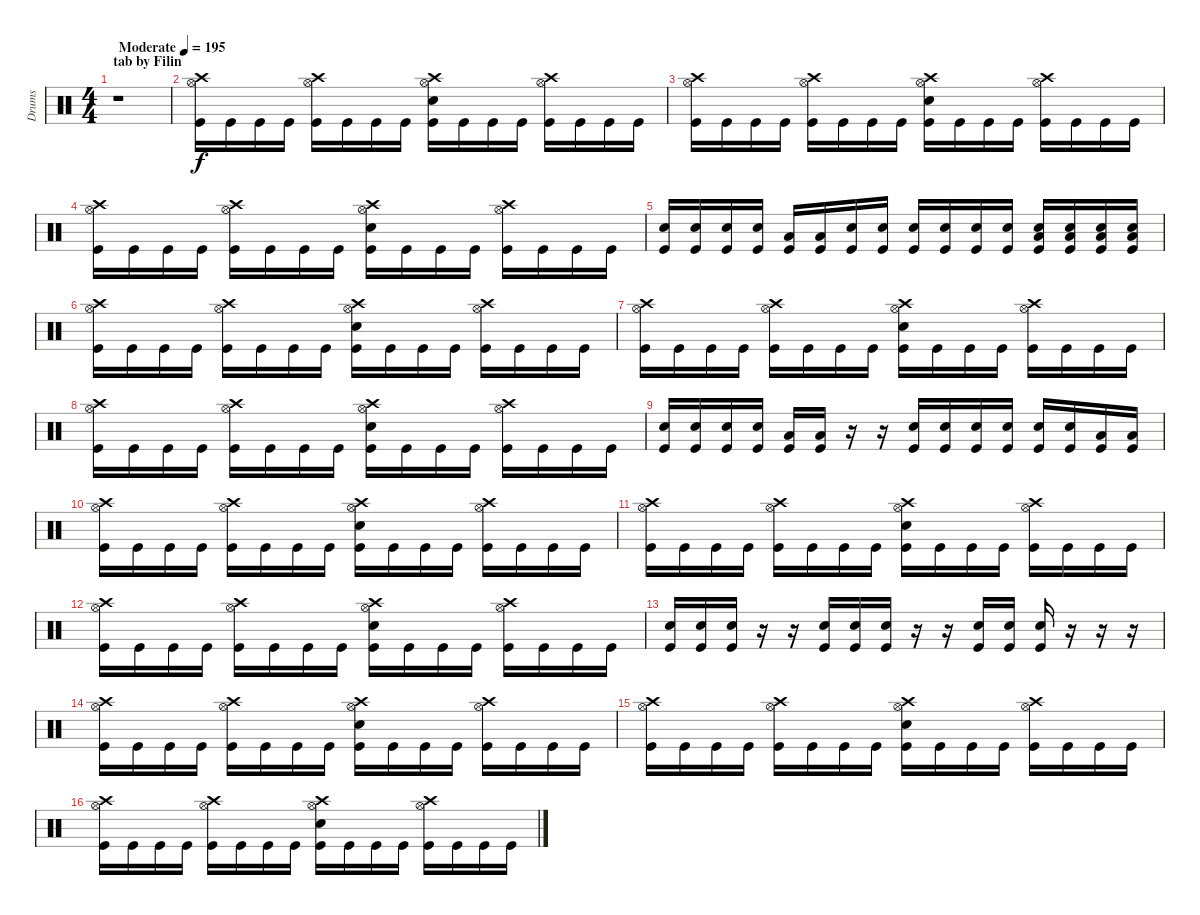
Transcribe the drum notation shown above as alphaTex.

\track ("Drums" "Drums") {instrument percussion}
\staff {score}
\articulation defaults
\ts (4 4)
\section ("" "tab by Filin")
\tempo (195 "Moderate")
\clef neutral
\ks c
r.1{dy f} |
("Crash high (hit)" "Hi-Hat (open)" "Kick (hit)").16 "Kick (hit)".16 "Kick (hit)".16 "Kick (hit)".16 ("Crash high (hit)" "Hi-Hat (open)" "Kick (hit)").16 "Kick (hit)".16 "Kick (hit)".16 "Kick (hit)".16 ("Crash high (hit)" "Hi-Hat (open)" "Electric Snare (hit)" "Kick (hit)").16 "Kick (hit)".16 "Kick (hit)".16 "Kick (hit)".16 ("Crash high (hit)" "Hi-Hat (open)" "Kick (hit)").16 "Kick (hit)".16 "Kick (hit)".16 "Kick (hit)".16 |
("Crash high (hit)" "Hi-Hat (open)" "Kick (hit)").16 "Kick (hit)".16 "Kick (hit)".16 "Kick (hit)".16 ("Crash high (hit)" "Hi-Hat (open)" "Kick (hit)").16 "Kick (hit)".16 "Kick (hit)".16 "Kick (hit)".16 ("Crash high (hit)" "Hi-Hat (open)" "Electric Snare (hit)" "Kick (hit)").16 "Kick (hit)".16 "Kick (hit)".16 "Kick (hit)".16 ("Crash high (hit)" "Hi-Hat (open)" "Kick (hit)").16 "Kick (hit)".16 "Kick (hit)".16 "Kick (hit)".16 |
("Crash high (hit)" "Hi-Hat (open)" "Kick (hit)").16 "Kick (hit)".16 "Kick (hit)".16 "Kick (hit)".16 ("Crash high (hit)" "Hi-Hat (open)" "Kick (hit)").16 "Kick (hit)".16 "Kick (hit)".16 "Kick (hit)".16 ("Crash high (hit)" "Hi-Hat (open)" "Electric Snare (hit)" "Kick (hit)").16 "Kick (hit)".16 "Kick (hit)".16 "Kick (hit)".16 ("Crash high (hit)" "Hi-Hat (open)" "Kick (hit)").16 "Kick (hit)".16 "Kick (hit)".16 "Kick (hit)".16 |
("Electric Snare (hit)" "Kick (hit)").16 ("Electric Snare (hit)" "Kick (hit)").16 ("Electric Snare (hit)" "Kick (hit)").16 ("Electric Snare (hit)" "Kick (hit)").16 ("Low Floor Tom (hit)" "Kick (hit)").16 ("Low Floor Tom (hit)" "Kick (hit)").16 ("Electric Snare (hit)" "Kick (hit)").16 ("Electric Snare (hit)" "Kick (hit)").16 ("Electric Snare (hit)" "Kick (hit)").16 ("Electric Snare (hit)" "Kick (hit)").16 ("Electric Snare (hit)" "Kick (hit)").16 ("Electric Snare (hit)" "Kick (hit)").16 ("Low Tom (hit)" "Electric Snare (hit)" "Kick (hit)").16 ("Low Tom (hit)" "Electric Snare (hit)" "Kick (hit)").16 ("Low Tom (hit)" "Electric Snare (hit)" "Kick (hit)").16 ("Low Tom (hit)" "Electric Snare (hit)" "Kick (hit)").16 |
("Crash high (hit)" "Hi-Hat (open)" "Kick (hit)").16 "Kick (hit)".16 "Kick (hit)".16 "Kick (hit)".16 ("Crash high (hit)" "Hi-Hat (open)" "Kick (hit)").16 "Kick (hit)".16 "Kick (hit)".16 "Kick (hit)".16 ("Crash high (hit)" "Hi-Hat (open)" "Electric Snare (hit)" "Kick (hit)").16 "Kick (hit)".16 "Kick (hit)".16 "Kick (hit)".16 ("Crash high (hit)" "Hi-Hat (open)" "Kick (hit)").16 "Kick (hit)".16 "Kick (hit)".16 "Kick (hit)".16 |
("Crash high (hit)" "Hi-Hat (open)" "Kick (hit)").16 "Kick (hit)".16 "Kick (hit)".16 "Kick (hit)".16 ("Crash high (hit)" "Hi-Hat (open)" "Kick (hit)").16 "Kick (hit)".16 "Kick (hit)".16 "Kick (hit)".16 ("Crash high (hit)" "Hi-Hat (open)" "Electric Snare (hit)" "Kick (hit)").16 "Kick (hit)".16 "Kick (hit)".16 "Kick (hit)".16 ("Crash high (hit)" "Hi-Hat (open)" "Kick (hit)").16 "Kick (hit)".16 "Kick (hit)".16 "Kick (hit)".16 |
("Crash high (hit)" "Hi-Hat (open)" "Kick (hit)").16 "Kick (hit)".16 "Kick (hit)".16 "Kick (hit)".16 ("Crash high (hit)" "Hi-Hat (open)" "Kick (hit)").16 "Kick (hit)".16 "Kick (hit)".16 "Kick (hit)".16 ("Crash high (hit)" "Hi-Hat (open)" "Electric Snare (hit)" "Kick (hit)").16 "Kick (hit)".16 "Kick (hit)".16 "Kick (hit)".16 ("Crash high (hit)" "Hi-Hat (open)" "Kick (hit)").16 "Kick (hit)".16 "Kick (hit)".16 "Kick (hit)".16 |
("Electric Snare (hit)" "Kick (hit)").16 ("Electric Snare (hit)" "Kick (hit)").16 ("Electric Snare (hit)" "Kick (hit)").16 ("Electric Snare (hit)" "Kick (hit)").16 ("Low Floor Tom (hit)" "Kick (hit)").16 ("Low Floor Tom (hit)" "Kick (hit)").16 r.16 r.16 ("Electric Snare (hit)" "Kick (hit)").16 ("Electric Snare (hit)" "Kick (hit)").16 ("Electric Snare (hit)" "Kick (hit)").16 ("Electric Snare (hit)" "Kick (hit)").16 ("Electric Snare (hit)" "Kick (hit)").16 ("Electric Snare (hit)" "Kick (hit)").16 ("Low Floor Tom (hit)" "Kick (hit)").16 ("Low Floor Tom (hit)" "Kick (hit)").16 |
("Crash high (hit)" "Hi-Hat (open)" "Kick (hit)").16 "Kick (hit)".16 "Kick (hit)".16 "Kick (hit)".16 ("Crash high (hit)" "Hi-Hat (open)" "Kick (hit)").16 "Kick (hit)".16 "Kick (hit)".16 "Kick (hit)".16 ("Crash high (hit)" "Hi-Hat (open)" "Electric Snare (hit)" "Kick (hit)").16 "Kick (hit)".16 "Kick (hit)".16 "Kick (hit)".16 ("Crash high (hit)" "Hi-Hat (open)" "Kick (hit)").16 "Kick (hit)".16 "Kick (hit)".16 "Kick (hit)".16 |
("Crash high (hit)" "Hi-Hat (open)" "Kick (hit)").16 "Kick (hit)".16 "Kick (hit)".16 "Kick (hit)".16 ("Crash high (hit)" "Hi-Hat (open)" "Kick (hit)").16 "Kick (hit)".16 "Kick (hit)".16 "Kick (hit)".16 ("Crash high (hit)" "Hi-Hat (open)" "Electric Snare (hit)" "Kick (hit)").16 "Kick (hit)".16 "Kick (hit)".16 "Kick (hit)".16 ("Crash high (hit)" "Hi-Hat (open)" "Kick (hit)").16 "Kick (hit)".16 "Kick (hit)".16 "Kick (hit)".16 |
("Crash high (hit)" "Hi-Hat (open)" "Kick (hit)").16 "Kick (hit)".16 "Kick (hit)".16 "Kick (hit)".16 ("Crash high (hit)" "Hi-Hat (open)" "Kick (hit)").16 "Kick (hit)".16 "Kick (hit)".16 "Kick (hit)".16 ("Crash high (hit)" "Hi-Hat (open)" "Electric Snare (hit)" "Kick (hit)").16 "Kick (hit)".16 "Kick (hit)".16 "Kick (hit)".16 ("Crash high (hit)" "Hi-Hat (open)" "Kick (hit)").16 "Kick (hit)".16 "Kick (hit)".16 "Kick (hit)".16 |
("Electric Snare (hit)" "Kick (hit)").16 ("Electric Snare (hit)" "Kick (hit)").16 ("Electric Snare (hit)" "Kick (hit)").16 r.16 r.16 ("Electric Snare (hit)" "Kick (hit)").16 ("Electric Snare (hit)" "Kick (hit)").16 ("Electric Snare (hit)" "Kick (hit)").16 r.16 r.16 ("Electric Snare (hit)" "Kick (hit)").16 ("Electric Snare (hit)" "Kick (hit)").16 ("Electric Snare (hit)" "Kick (hit)").16 r.16 r.16 r.16 |
("Crash high (hit)" "Hi-Hat (open)" "Kick (hit)").16 "Kick (hit)".16 "Kick (hit)".16 "Kick (hit)".16 ("Crash high (hit)" "Hi-Hat (open)" "Kick (hit)").16 "Kick (hit)".16 "Kick (hit)".16 "Kick (hit)".16 ("Crash high (hit)" "Hi-Hat (open)" "Electric Snare (hit)" "Kick (hit)").16 "Kick (hit)".16 "Kick (hit)".16 "Kick (hit)".16 ("Crash high (hit)" "Hi-Hat (open)" "Kick (hit)").16 "Kick (hit)".16 "Kick (hit)".16 "Kick (hit)".16 |
("Crash high (hit)" "Hi-Hat (open)" "Kick (hit)").16 "Kick (hit)".16 "Kick (hit)".16 "Kick (hit)".16 ("Crash high (hit)" "Hi-Hat (open)" "Kick (hit)").16 "Kick (hit)".16 "Kick (hit)".16 "Kick (hit)".16 ("Crash high (hit)" "Hi-Hat (open)" "Electric Snare (hit)" "Kick (hit)").16 "Kick (hit)".16 "Kick (hit)".16 "Kick (hit)".16 ("Crash high (hit)" "Hi-Hat (open)" "Kick (hit)").16 "Kick (hit)".16 "Kick (hit)".16 "Kick (hit)".16 |
("Crash high (hit)" "Hi-Hat (open)" "Kick (hit)").16 "Kick (hit)".16 "Kick (hit)".16 "Kick (hit)".16 ("Crash high (hit)" "Hi-Hat (open)" "Kick (hit)").16 "Kick (hit)".16 "Kick (hit)".16 "Kick (hit)".16 ("Crash high (hit)" "Hi-Hat (open)" "Electric Snare (hit)" "Kick (hit)").16 "Kick (hit)".16 "Kick (hit)".16 "Kick (hit)".16 ("Crash high (hit)" "Hi-Hat (open)" "Kick (hit)").16 "Kick (hit)".16 "Kick (hit)".16 "Kick (hit)".16
